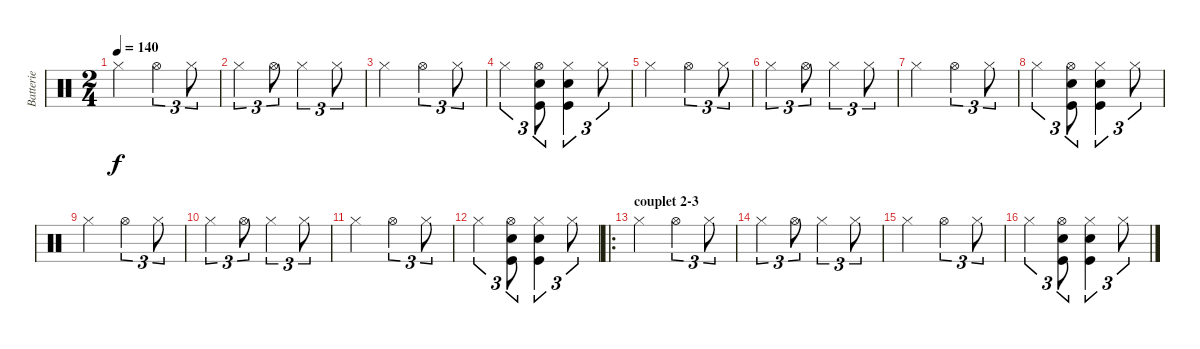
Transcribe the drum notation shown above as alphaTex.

\track ("Batterie" "Batterie") {instrument percussion}
\staff {score}
\articulation defaults
\ts (2 4)
\tempo 140
\clef neutral
\ks c "Hi-Hat (closed)".4{dy f} "Hi-Hat (open)".4{tu (3 2)} "Hi-Hat (closed)".8{tu (3 2)}
|
"Hi-Hat (closed)".4{tu (3 2)} "Hi-Hat (open)".8{tu (3 2)} "Hi-Hat (closed)".4{tu (3 2)} "Hi-Hat (closed)".8{tu (3 2)} |
"Hi-Hat (closed)".4 "Hi-Hat (open)".4{tu (3 2)} "Hi-Hat (closed)".8{tu (3 2)} |
"Hi-Hat (closed)".4{tu (3 2)} ("Hi-Hat (open)" "Snare (hit) 2" "Kick (hit)").8{tu (3 2)} ("Hi-Hat (closed)" "Snare (hit) 2" "Kick (hit)").4{tu (3 2)} "Hi-Hat (closed)".8{tu (3 2)} |
"Hi-Hat (closed)".4 "Hi-Hat (open)".4{tu (3 2)} "Hi-Hat (closed)".8{tu (3 2)} |
"Hi-Hat (closed)".4{tu (3 2)} "Hi-Hat (open)".8{tu (3 2)} "Hi-Hat (closed)".4{tu (3 2)} "Hi-Hat (closed)".8{tu (3 2)} |
"Hi-Hat (closed)".4 "Hi-Hat (open)".4{tu (3 2)} "Hi-Hat (closed)".8{tu (3 2)} |
"Hi-Hat (closed)".4{tu (3 2)} ("Hi-Hat (open)" "Snare (hit) 2" "Kick (hit)").8{tu (3 2)} ("Hi-Hat (closed)" "Snare (hit) 2" "Kick (hit)").4{tu (3 2)} "Hi-Hat (closed)".8{tu (3 2)} |
"Hi-Hat (closed)".4 "Hi-Hat (open)".4{tu (3 2)} "Hi-Hat (closed)".8{tu (3 2)} |
"Hi-Hat (closed)".4{tu (3 2)} "Hi-Hat (open)".8{tu (3 2)} "Hi-Hat (closed)".4{tu (3 2)} "Hi-Hat (closed)".8{tu (3 2)} |
"Hi-Hat (closed)".4 "Hi-Hat (open)".4{tu (3 2)} "Hi-Hat (closed)".8{tu (3 2)} |
"Hi-Hat (closed)".4{tu (3 2)} ("Hi-Hat (open)" "Snare (hit) 2" "Kick (hit)").8{tu (3 2)} ("Hi-Hat (closed)" "Snare (hit) 2" "Kick (hit)").4{tu (3 2)} "Hi-Hat (closed)".8{tu (3 2)} |
\ro
\section ("" "couplet 2-3")
"Hi-Hat (closed)".4 "Hi-Hat (open)".4{tu (3 2)} "Hi-Hat (closed)".8{tu (3 2)} |
"Hi-Hat (closed)".4{tu (3 2)} "Hi-Hat (open)".8{tu (3 2)} "Hi-Hat (closed)".4{tu (3 2)} "Hi-Hat (closed)".8{tu (3 2)} |
"Hi-Hat (closed)".4 "Hi-Hat (open)".4{tu (3 2)} "Hi-Hat (closed)".8{tu (3 2)} |
"Hi-Hat (closed)".4{tu (3 2)} ("Hi-Hat (open)" "Snare (hit) 2" "Kick (hit)").8{tu (3 2)} ("Hi-Hat (closed)" "Snare (hit) 2" "Kick (hit)").4{tu (3 2)} "Hi-Hat (closed)".8{tu (3 2)}
